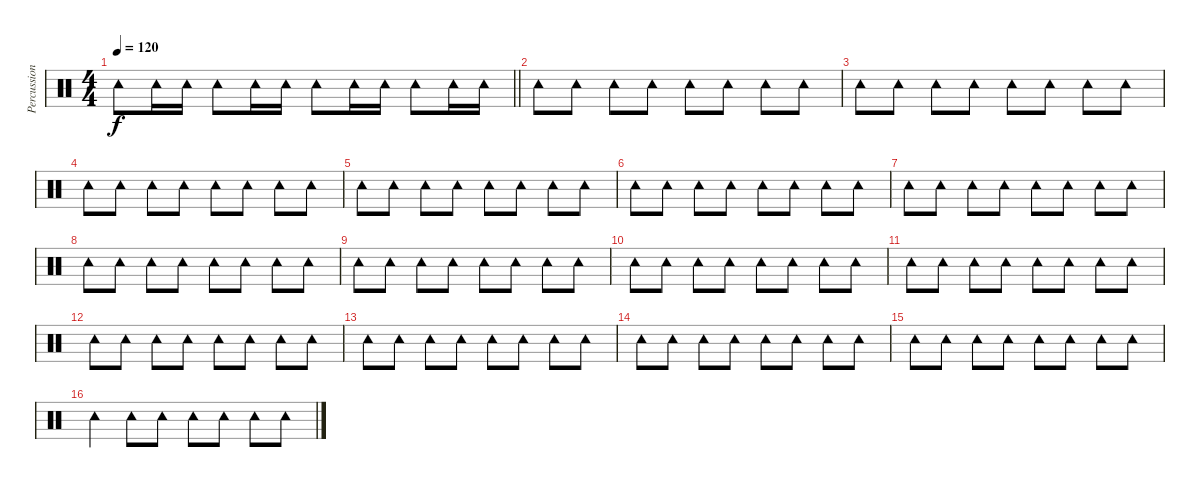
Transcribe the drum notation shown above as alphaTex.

\track ("Percussion" "Percussion") {instrument percussion}
\staff {score}
\articulation defaults
\ts (4 4)
\tempo 120
\clef neutral
\barLineRight lightlight
\ks c "Tambourine (hit)".8{dy f} "Tambourine (hit)".16 "Tambourine (hit)".16 "Tambourine (hit)".8 "Tambourine (hit)".16 "Tambourine (hit)".16 "Tambourine (hit)".8 "Tambourine (hit)".16 "Tambourine (hit)".16 "Tambourine (hit)".8 "Tambourine (hit)".16 "Tambourine (hit)".16
|
"Tambourine (hit)".8 "Tambourine (hit)".8 "Tambourine (hit)".8 "Tambourine (hit)".8 "Tambourine (hit)".8 "Tambourine (hit)".8 "Tambourine (hit)".8 "Tambourine (hit)".8 |
"Tambourine (hit)".8 "Tambourine (hit)".8 "Tambourine (hit)".8 "Tambourine (hit)".8 "Tambourine (hit)".8 "Tambourine (hit)".8 "Tambourine (hit)".8 "Tambourine (hit)".8 |
"Tambourine (hit)".8 "Tambourine (hit)".8 "Tambourine (hit)".8 "Tambourine (hit)".8 "Tambourine (hit)".8 "Tambourine (hit)".8 "Tambourine (hit)".8 "Tambourine (hit)".8 |
"Tambourine (hit)".8 "Tambourine (hit)".8 "Tambourine (hit)".8 "Tambourine (hit)".8 "Tambourine (hit)".8 "Tambourine (hit)".8 "Tambourine (hit)".8 "Tambourine (hit)".8 |
"Tambourine (hit)".8 "Tambourine (hit)".8 "Tambourine (hit)".8 "Tambourine (hit)".8 "Tambourine (hit)".8 "Tambourine (hit)".8 "Tambourine (hit)".8 "Tambourine (hit)".8 |
"Tambourine (hit)".8 "Tambourine (hit)".8 "Tambourine (hit)".8 "Tambourine (hit)".8 "Tambourine (hit)".8 "Tambourine (hit)".8 "Tambourine (hit)".8 "Tambourine (hit)".8 |
"Tambourine (hit)".8 "Tambourine (hit)".8 "Tambourine (hit)".8 "Tambourine (hit)".8 "Tambourine (hit)".8 "Tambourine (hit)".8 "Tambourine (hit)".8 "Tambourine (hit)".8 |
"Tambourine (hit)".8 "Tambourine (hit)".8 "Tambourine (hit)".8 "Tambourine (hit)".8 "Tambourine (hit)".8 "Tambourine (hit)".8 "Tambourine (hit)".8 "Tambourine (hit)".8 |
"Tambourine (hit)".8 "Tambourine (hit)".8 "Tambourine (hit)".8 "Tambourine (hit)".8 "Tambourine (hit)".8 "Tambourine (hit)".8 "Tambourine (hit)".8 "Tambourine (hit)".8 |
"Tambourine (hit)".8 "Tambourine (hit)".8 "Tambourine (hit)".8 "Tambourine (hit)".8 "Tambourine (hit)".8 "Tambourine (hit)".8 "Tambourine (hit)".8 "Tambourine (hit)".8 |
"Tambourine (hit)".8 "Tambourine (hit)".8 "Tambourine (hit)".8 "Tambourine (hit)".8 "Tambourine (hit)".8 "Tambourine (hit)".8 "Tambourine (hit)".8 "Tambourine (hit)".8 |
"Tambourine (hit)".8 "Tambourine (hit)".8 "Tambourine (hit)".8 "Tambourine (hit)".8 "Tambourine (hit)".8 "Tambourine (hit)".8 "Tambourine (hit)".8 "Tambourine (hit)".8 |
"Tambourine (hit)".8 "Tambourine (hit)".8 "Tambourine (hit)".8 "Tambourine (hit)".8 "Tambourine (hit)".8 "Tambourine (hit)".8 "Tambourine (hit)".8 "Tambourine (hit)".8 |
"Tambourine (hit)".8 "Tambourine (hit)".8 "Tambourine (hit)".8 "Tambourine (hit)".8 "Tambourine (hit)".8 "Tambourine (hit)".8 "Tambourine (hit)".8 "Tambourine (hit)".8 |
"Tambourine (hit)".4 "Tambourine (hit)".8 "Tambourine (hit)".8 "Tambourine (hit)".8 "Tambourine (hit)".8 "Tambourine (hit)".8 "Tambourine (hit)".8
